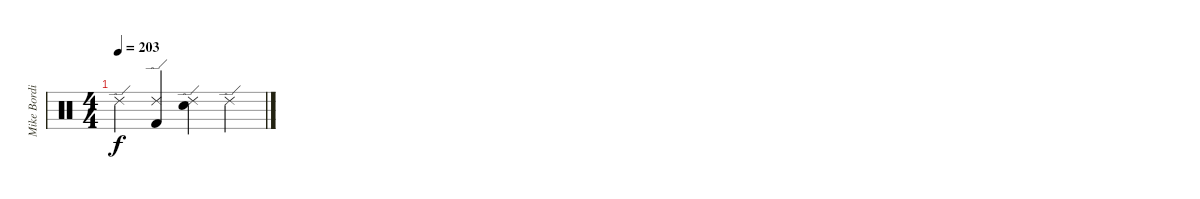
\track ("Mike Bordin" "Mike Bordi") {instrument percussion}
\staff {score}
\articulation defaults
\ts (4 4)
\tempo 203
\clef neutral
\ks c "Ride (edge) 2".4{dy f}
("Ride (edge) 2" "Kick (hit) 2").4 ("Ride (edge) 2" "Snare (hit) 2").4 "Ride (edge) 2".4
